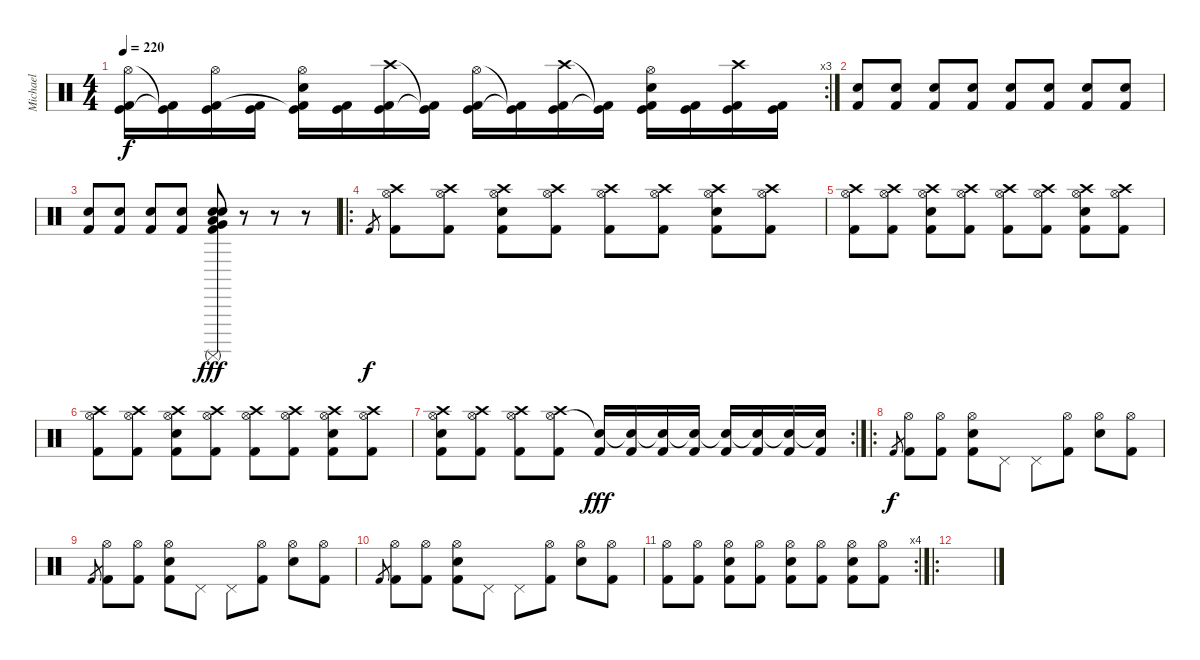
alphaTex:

\track ("Michael" "Michael") {instrument percussion}
\staff {score}
\articulation defaults
\rc 3
\ts (4 4)
\tempo 220
\clef neutral
\ks c
("Hi-Hat (open)" "Kick (hit)" "Kick (hit) 2").16{dy f} ("Kick (hit)"{t} "Kick (hit) 2"{t}).16 ("Hi-Hat (open)" "Kick (hit)" "Kick (hit) 2").16 ("Kick (hit)" "Kick (hit) 2").16 ("Hi-Hat (open)" "Electric Snare (hit)" "Kick (hit)"{t} "Kick (hit) 2"{t}).16 ("Kick (hit)" "Kick (hit) 2").16 ("Crash high (hit)" "Kick (hit)" "Kick (hit) 2").16 ("Kick (hit)"{t} "Kick (hit) 2"{t}).16 ("Hi-Hat (open)" "Kick (hit)" "Kick (hit) 2").16 ("Kick (hit)"{t} "Kick (hit) 2"{t}).16 ("Crash high (hit)" "Kick (hit)" "Kick (hit) 2").16 ("Kick (hit)"{t} "Kick (hit) 2"{t}).16 ("Hi-Hat (open)" "Electric Snare (hit)" "Kick (hit)" "Kick (hit) 2").16 ("Kick (hit)" "Kick (hit) 2").16 ("Crash high (hit)" "Kick (hit)" "Kick (hit) 2").16 ("Kick (hit)" "Kick (hit) 2").16 |
("Kick (hit) 2" "Electric Snare (hit)").8 ("Kick (hit) 2" "Electric Snare (hit)").8 ("Kick (hit) 2" "Electric Snare (hit)").8 ("Kick (hit) 2" "Electric Snare (hit)").8 ("Kick (hit) 2" "Electric Snare (hit)").8 ("Kick (hit) 2" "Electric Snare (hit)").8 ("Kick (hit) 2" "Electric Snare (hit)").8 ("Kick (hit) 2" "Electric Snare (hit)").8 |
("Kick (hit) 2" "Electric Snare (hit)").8 ("Kick (hit) 2" "Electric Snare (hit)").8 ("Kick (hit) 2" "Electric Snare (hit)").8 ("Kick (hit) 2" "Electric Snare (hit)").8 ("Low Floor Tom (hit)" "Very Low Tom (hit)" "Snare (hit)" "Surdo (mute)" "Kick (hit) 2" "Electric Snare (hit)").8{dy fff} r.8 r.8 r.8 |
\ro "Kick (hit) 2".8{gr dy f}
("Crash high (hit)" "Hi-Hat (open)" "Kick (hit) 2").8 ("Crash high (hit)" "Hi-Hat (open)" "Kick (hit) 2").8 ("Crash high (hit)" "Hi-Hat (open)" "Electric Snare (hit)" "Kick (hit) 2").8 ("Crash high (hit)" "Hi-Hat (open)" "Kick (hit) 2").8 ("Crash high (hit)" "Hi-Hat (open)" "Kick (hit) 2").8 ("Crash high (hit)" "Hi-Hat (open)" "Kick (hit) 2").8 ("Crash high (hit)" "Hi-Hat (open)" "Electric Snare (hit)" "Kick (hit) 2").8 ("Crash high (hit)" "Hi-Hat (open)" "Kick (hit) 2").8 |
("Hi-Hat (open)" "Crash high (hit)" "Kick (hit) 2").8 ("Hi-Hat (open)" "Crash high (hit)" "Kick (hit) 2").8 ("Hi-Hat (open)" "Crash high (hit)" "Electric Snare (hit)" "Kick (hit) 2").8 ("Hi-Hat (open)" "Crash high (hit)" "Kick (hit) 2").8 ("Hi-Hat (open)" "Crash high (hit)" "Kick (hit) 2").8 ("Hi-Hat (open)" "Crash high (hit)" "Kick (hit) 2").8 ("Hi-Hat (open)" "Crash high (hit)" "Electric Snare (hit)" "Kick (hit) 2").8 ("Hi-Hat (open)" "Crash high (hit)" "Kick (hit) 2").8 |
("Hi-Hat (open)" "Crash high (hit)" "Kick (hit) 2").8 ("Hi-Hat (open)" "Crash high (hit)" "Kick (hit) 2").8 ("Hi-Hat (open)" "Crash high (hit)" "Electric Snare (hit)" "Kick (hit) 2").8 ("Hi-Hat (open)" "Crash high (hit)" "Kick (hit) 2").8 ("Hi-Hat (open)" "Crash high (hit)" "Kick (hit) 2").8 ("Hi-Hat (open)" "Crash high (hit)" "Kick (hit) 2").8 ("Hi-Hat (open)" "Crash high (hit)" "Electric Snare (hit)" "Kick (hit) 2").8 ("Hi-Hat (open)" "Crash high (hit)" "Kick (hit) 2").8 |
\rc 2
("Hi-Hat (open)" "Crash high (hit)" "Electric Snare (hit)" "Kick (hit) 2").8 ("Hi-Hat (open)" "Crash high (hit)" "Kick (hit) 2").8 ("Hi-Hat (open)" "Crash high (hit)" "Kick (hit) 2").8 ("Hi-Hat (open)" "Crash high (hit)" "Kick (hit) 2").8 ("Snare (hit)"{t} "Kick (hit) 2").16{dy fff} ("Snare (hit)"{t} "Kick (hit) 2").16 ("Snare (hit)"{t} "Kick (hit) 2").16 ("Snare (hit)"{t} "Kick (hit) 2").16 ("Snare (hit)"{t} "Kick (hit) 2").16 ("Snare (hit)"{t} "Kick (hit) 2").16 ("Snare (hit)"{t} "Kick (hit) 2").16 ("Snare (hit)"{t} "Kick (hit) 2").16 |
\ro "Kick (hit) 2".8{gr dy f}
("Hi-Hat (open)" "Kick (hit) 2").8 ("Hi-Hat (open)" "Kick (hit) 2").8 ("Hi-Hat (open)" "Electric Snare (hit)" "Kick (hit) 2").8 "Pedal Hi-Hat (hit)".8 "Pedal Hi-Hat (hit)".8 ("Hi-Hat (open)" "Kick (hit) 2").8 ("Hi-Hat (open)" "Electric Snare (hit)").8 ("Hi-Hat (open)" "Kick (hit) 2").8 |
"Kick (hit) 2".8{gr} ("Hi-Hat (open)" "Kick (hit) 2").8 ("Hi-Hat (open)" "Kick (hit) 2").8 ("Hi-Hat (open)" "Electric Snare (hit)" "Kick (hit) 2").8 "Pedal Hi-Hat (hit)".8 "Pedal Hi-Hat (hit)".8 ("Hi-Hat (open)" "Kick (hit) 2").8 ("Hi-Hat (open)" "Electric Snare (hit)").8 ("Hi-Hat (open)" "Kick (hit) 2").8 |
"Kick (hit) 2".8{gr} ("Hi-Hat (open)" "Kick (hit) 2").8 ("Hi-Hat (open)" "Kick (hit) 2").8 ("Hi-Hat (open)" "Electric Snare (hit)" "Kick (hit) 2").8 "Pedal Hi-Hat (hit)".8 "Pedal Hi-Hat (hit)".8 ("Hi-Hat (open)" "Kick (hit) 2").8 ("Hi-Hat (open)" "Electric Snare (hit)").8 ("Hi-Hat (open)" "Kick (hit) 2").8 |
\rc 4
("Hi-Hat (open)" "Kick (hit) 2").8 ("Hi-Hat (open)" "Kick (hit) 2").8 ("Hi-Hat (open)" "Electric Snare (hit)" "Kick (hit) 2").8 ("Hi-Hat (open)" "Kick (hit) 2").8 ("Hi-Hat (open)" "Electric Snare (hit)" "Kick (hit) 2").8 ("Hi-Hat (open)" "Kick (hit) 2").8 ("Hi-Hat (open)" "Electric Snare (hit)" "Kick (hit) 2").8 ("Hi-Hat (open)" "Kick (hit) 2").8 |
\ro
